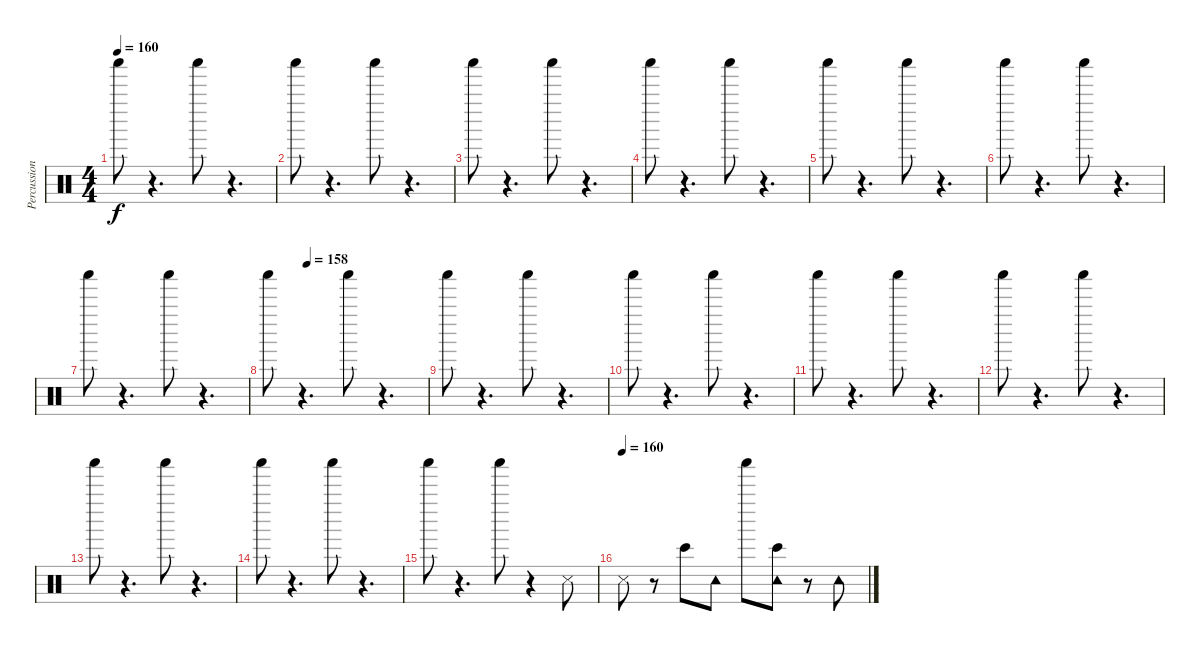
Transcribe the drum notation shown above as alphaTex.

\track ("Percussions" "Percussion") {instrument percussion}
\staff {score}
\articulation defaults
\ts (4 4)
\tempo 160
\clef neutral
\ks c "Shaker (hit)".8{dy f}
r.4{d} "Shaker (hit)".8 r.4{d} |
"Shaker (hit)".8 r.4{d} "Shaker (hit)".8 r.4{d} |
"Shaker (hit)".8 r.4{d} "Shaker (hit)".8 r.4{d} |
"Shaker (hit)".8 r.4{d} "Shaker (hit)".8 r.4{d} |
"Shaker (hit)".8 r.4{d} "Shaker (hit)".8 r.4{d} |
"Shaker (hit)".8 r.4{d} "Shaker (hit)".8 r.4{d} |
"Shaker (hit)".8 r.4{d} "Shaker (hit)".8 r.4{d} |
\tempo (158 0.25)
"Shaker (hit)".8 r.4{d} "Shaker (hit)".8 r.4{d} |
"Shaker (hit)".8 r.4{d} "Shaker (hit)".8 r.4{d} |
"Shaker (hit)".8 r.4{d} "Shaker (hit)".8 r.4{d} |
"Shaker (hit)".8 r.4{d} "Shaker (hit)".8 r.4{d} |
"Shaker (hit)".8 r.4{d} "Shaker (hit)".8 r.4{d} |
"Shaker (hit)".8 r.4{d} "Shaker (hit)".8 r.4{d} |
"Shaker (hit)".8 r.4{d} "Shaker (hit)".8 r.4{d} |
"Shaker (hit)".8 r.4{d} "Shaker (hit)".8 r.4 "Snare (side stick) 3".8 |
\tempo (160)
"Snare (side stick) 3".8 r.8 "Bongo High (hit)".8 "Tambourine (hit)".8 "Shaker (hit)".8 ("Bongo High (hit)" "Tambourine (hit)").8 r.8 "Tambourine (hit)".8
